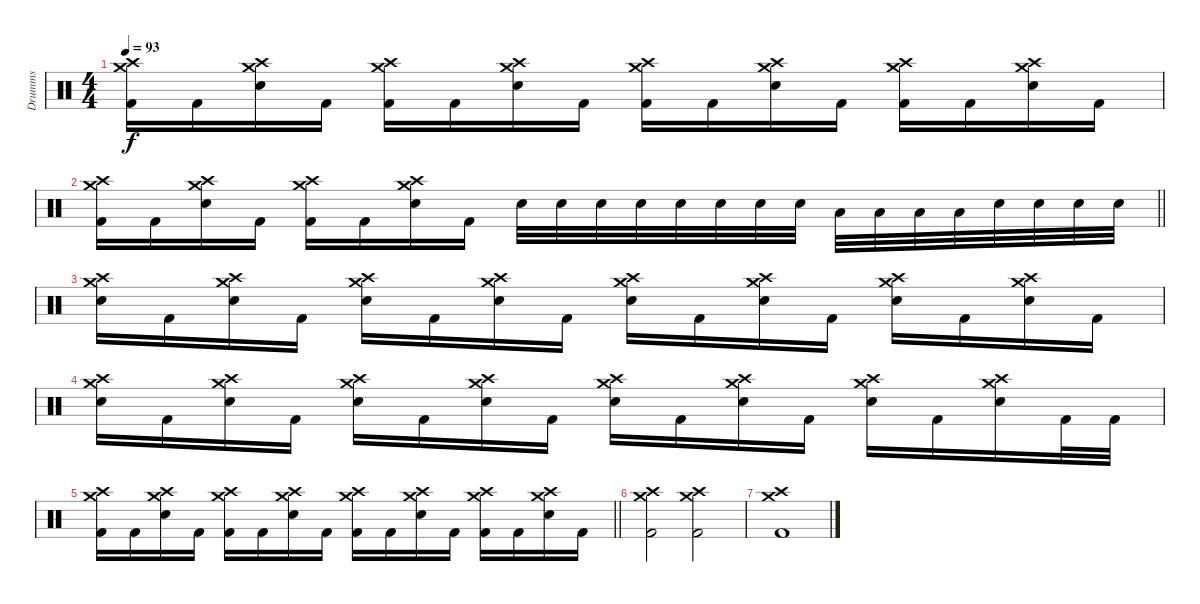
\track ("Drumms" "Drumms") {instrument percussion}
\staff {score}
\articulation defaults
\ts (4 4)
\tempo 93
\clef neutral
\ks c
("Crash medium (hit)" "Crash high (hit)" "Kick (hit) 2").16{dy f} "Kick (hit) 2".16 ("Crash medium (hit)" "Crash high (hit)" "Electric Snare (hit)").16 "Kick (hit) 2".16 ("Crash medium (hit)" "Crash high (hit)" "Kick (hit) 2").16 "Kick (hit) 2".16 ("Crash medium (hit)" "Crash high (hit)" "Electric Snare (hit)").16 "Kick (hit) 2".16 ("Crash medium (hit)" "Crash high (hit)" "Kick (hit) 2").16 "Kick (hit) 2".16 ("Crash medium (hit)" "Crash high (hit)" "Electric Snare (hit)").16 "Kick (hit) 2".16 ("Crash medium (hit)" "Crash high (hit)" "Kick (hit) 2").16 "Kick (hit) 2".16 ("Crash medium (hit)" "Crash high (hit)" "Electric Snare (hit)").16 "Kick (hit) 2".16 |
\barLineRight lightlight
("Crash medium (hit)" "Crash high (hit)" "Kick (hit) 2").16 "Kick (hit) 2".16 ("Crash medium (hit)" "Crash high (hit)" "Electric Snare (hit)").16 "Kick (hit) 2".16 ("Crash medium (hit)" "Crash high (hit)" "Kick (hit) 2").16 "Kick (hit) 2".16 ("Crash medium (hit)" "Crash high (hit)" "Electric Snare (hit)").16 "Kick (hit) 2".16 "Electric Snare (hit)".32 "Electric Snare (hit)".32 "Electric Snare (hit)".32 "Electric Snare (hit)".32 "Snare (hit) 2".32 "Snare (hit) 2".32 "Snare (hit) 2".32 "Snare (hit) 2".32 "Low Tom (hit)".32 "Low Tom (hit)".32 "Low Tom (hit)".32 "Low Tom (hit)".32 "Snare (hit) 2".32 "Snare (hit) 2".32 "Snare (hit) 2".32 "Snare (hit) 2".32 |
("Crash medium (hit)" "Crash high (hit)" "Electric Snare (hit)").16 "Kick (hit) 2".16 ("Crash medium (hit)" "Crash high (hit)" "Electric Snare (hit)").16 "Kick (hit) 2".16 ("Crash medium (hit)" "Crash high (hit)" "Electric Snare (hit)").16 "Kick (hit) 2".16 ("Crash medium (hit)" "Crash high (hit)" "Electric Snare (hit)").16 "Kick (hit) 2".16 ("Crash medium (hit)" "Crash high (hit)" "Electric Snare (hit)").16 "Kick (hit) 2".16 ("Crash medium (hit)" "Crash high (hit)" "Electric Snare (hit)").16 "Kick (hit) 2".16 ("Crash medium (hit)" "Crash high (hit)" "Electric Snare (hit)").16 "Kick (hit) 2".16 ("Crash medium (hit)" "Crash high (hit)" "Electric Snare (hit)").16 "Kick (hit) 2".16 |
("Crash medium (hit)" "Crash high (hit)" "Electric Snare (hit)").16 "Kick (hit) 2".16 ("Crash medium (hit)" "Crash high (hit)" "Electric Snare (hit)").16 "Kick (hit) 2".16 ("Crash medium (hit)" "Crash high (hit)" "Electric Snare (hit)").16 "Kick (hit) 2".16 ("Crash medium (hit)" "Crash high (hit)" "Electric Snare (hit)").16 "Kick (hit) 2".16 ("Crash medium (hit)" "Crash high (hit)" "Electric Snare (hit)").16 "Kick (hit) 2".16 ("Crash medium (hit)" "Crash high (hit)" "Electric Snare (hit)").16 "Kick (hit) 2".16 ("Crash medium (hit)" "Crash high (hit)" "Electric Snare (hit)").16 "Kick (hit) 2".16 ("Crash medium (hit)" "Crash high (hit)" "Electric Snare (hit)").16 "Kick (hit) 2".32 "Kick (hit) 2".32 |
\barLineRight lightlight
("Crash medium (hit)" "Crash high (hit)" "Kick (hit) 2").16 "Kick (hit) 2".16 ("Crash medium (hit)" "Crash high (hit)" "Electric Snare (hit)").16 "Kick (hit) 2".16 ("Crash medium (hit)" "Crash high (hit)" "Kick (hit) 2").16 "Kick (hit) 2".16 ("Crash medium (hit)" "Crash high (hit)" "Electric Snare (hit)").16 "Kick (hit) 2".16 ("Crash medium (hit)" "Crash high (hit)" "Kick (hit) 2").16 "Kick (hit) 2".16 ("Crash medium (hit)" "Crash high (hit)" "Electric Snare (hit)").16 "Kick (hit) 2".16 ("Crash medium (hit)" "Crash high (hit)" "Kick (hit) 2").16 "Kick (hit) 2".16 ("Crash medium (hit)" "Crash high (hit)" "Electric Snare (hit)").16 "Kick (hit) 2".16 |
("Crash medium (hit)" "Crash high (hit)" "Kick (hit) 2").2 ("Crash medium (hit)" "Crash high (hit)" "Kick (hit) 2").2 |
("Crash medium (hit)" "Crash high (hit)" "Kick (hit) 2").1
